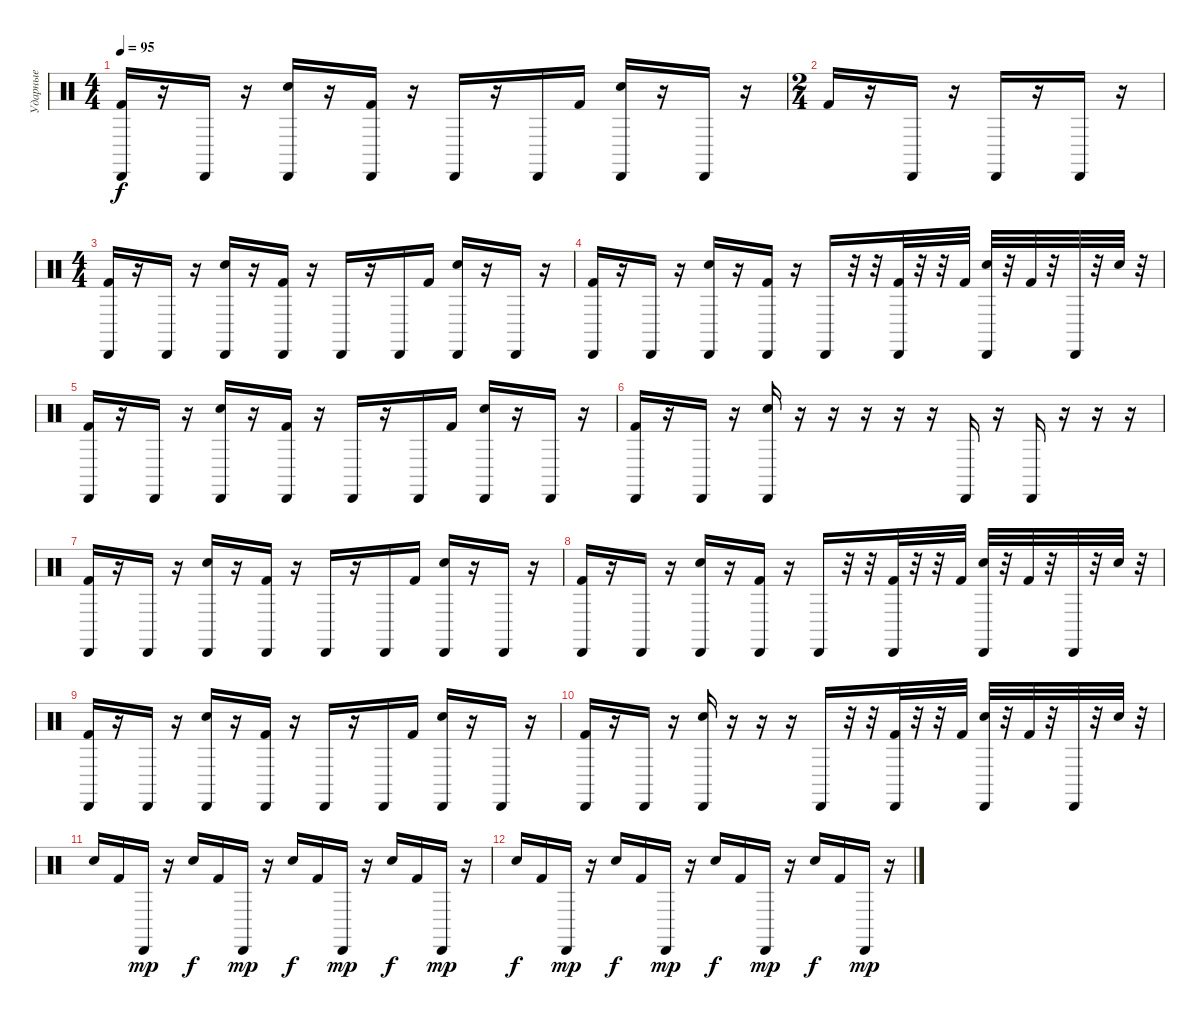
\track ("Ударные" "Ударные") {instrument percussion}
\staff {score}
\articulation defaults
\ts (4 4)
\tempo 95
\clef neutral
\ks c
("Cabasa (hit)" "Kick (hit) 2").16{dy f} r.16 "Cabasa (hit)".16 r.16 ("Cabasa (hit)" "Snare (hit) 2").16 r.16 ("Cabasa (hit)" "Kick (hit) 2").16 r.16 "Cabasa (hit)".16 r.16 "Cabasa (hit)".16 "Kick (hit) 2".16 ("Cabasa (hit)" "Snare (hit) 2").16 r.16 "Cabasa (hit)".16 r.16 |
\ts (2 4)
"Kick (hit) 2".16 r.16 "Cabasa (hit)".16 r.16 "Cabasa (hit)".16 r.16 "Cabasa (hit)".16 r.16 |
\ts (4 4)
("Cabasa (hit)" "Kick (hit) 2").16 r.16 "Cabasa (hit)".16 r.16 ("Cabasa (hit)" "Snare (hit) 2").16 r.16 ("Cabasa (hit)" "Kick (hit) 2").16 r.16 "Cabasa (hit)".16 r.16 "Cabasa (hit)".16 "Kick (hit) 2".16 ("Cabasa (hit)" "Snare (hit) 2").16 r.16 "Cabasa (hit)".16 r.16 |
("Cabasa (hit)" "Kick (hit) 2").16 r.16 "Cabasa (hit)".16 r.16 ("Cabasa (hit)" "Snare (hit) 2").16 r.16 ("Cabasa (hit)" "Kick (hit) 2").16 r.16 "Cabasa (hit)".16 r.32 r.32 ("Cabasa (hit)" "Kick (hit) 2").32 r.32 r.32 "Kick (hit) 2".32 ("Cabasa (hit)" "Snare (hit) 2").32 r.32 "Kick (hit) 2".32 r.32 "Cabasa (hit)".32 r.32 "Snare (hit) 2".32 r.32 |
("Cabasa (hit)" "Kick (hit) 2").16 r.16 "Cabasa (hit)".16 r.16 ("Cabasa (hit)" "Snare (hit) 2").16 r.16 ("Cabasa (hit)" "Kick (hit) 2").16 r.16 "Cabasa (hit)".16 r.16 "Cabasa (hit)".16 "Kick (hit) 2".16 ("Cabasa (hit)" "Snare (hit) 2").16 r.16 "Cabasa (hit)".16 r.16 |
("Cabasa (hit)" "Kick (hit) 2").16 r.16 "Cabasa (hit)".16 r.16 ("Cabasa (hit)" "Snare (hit) 2").16 r.16 r.16 r.16 r.16 r.16 "Cabasa (hit)".16 r.16 "Cabasa (hit)".16 r.16 r.16 r.16 |
("Cabasa (hit)" "Kick (hit) 2").16 r.16 "Cabasa (hit)".16 r.16 ("Cabasa (hit)" "Snare (hit) 2").16 r.16 ("Cabasa (hit)" "Kick (hit) 2").16 r.16 "Cabasa (hit)".16 r.16 "Cabasa (hit)".16 "Kick (hit) 2".16 ("Cabasa (hit)" "Snare (hit) 2").16 r.16 "Cabasa (hit)".16 r.16 |
("Cabasa (hit)" "Kick (hit) 2").16 r.16 "Cabasa (hit)".16 r.16 ("Cabasa (hit)" "Snare (hit) 2").16 r.16 ("Cabasa (hit)" "Kick (hit) 2").16 r.16 "Cabasa (hit)".16 r.32 r.32 ("Cabasa (hit)" "Kick (hit) 2").32 r.32 r.32 "Kick (hit) 2".32 ("Cabasa (hit)" "Snare (hit) 2").32 r.32 "Kick (hit) 2".32 r.32 "Cabasa (hit)".32 r.32 "Snare (hit) 2".32 r.32 |
("Cabasa (hit)" "Kick (hit) 2").16 r.16 "Cabasa (hit)".16 r.16 ("Cabasa (hit)" "Snare (hit) 2").16 r.16 ("Cabasa (hit)" "Kick (hit) 2").16 r.16 "Cabasa (hit)".16 r.16 "Cabasa (hit)".16 "Kick (hit) 2".16 ("Cabasa (hit)" "Snare (hit) 2").16 r.16 "Cabasa (hit)".16 r.16 |
("Cabasa (hit)" "Kick (hit) 2").16 r.16 "Cabasa (hit)".16 r.16 ("Cabasa (hit)" "Snare (hit) 2").16 r.16 r.16 r.16 "Cabasa (hit)".16 r.32 r.32 ("Cabasa (hit)" "Kick (hit) 2").32 r.32 r.32 "Kick (hit) 2".32 ("Cabasa (hit)" "Snare (hit) 2").32 r.32 "Kick (hit) 2".32 r.32 "Cabasa (hit)".32 r.32 "Snare (hit) 2".32 r.32 |
"Snare (hit) 2".16{volume 0} "Kick (hit) 2".16 "Cabasa (hit)".16{dy mp} r.16 "Snare (hit) 2".16{dy f} "Kick (hit) 2".16 "Cabasa (hit)".16{dy mp} r.16 "Snare (hit) 2".16{dy f} "Kick (hit) 2".16 "Cabasa (hit)".16{dy mp} r.16 "Snare (hit) 2".16{dy f} "Kick (hit) 2".16 "Cabasa (hit)".16{dy mp} r.16 |
"Snare (hit) 2".16{dy f} "Kick (hit) 2".16 "Cabasa (hit)".16{dy mp} r.16 "Snare (hit) 2".16{dy f} "Kick (hit) 2".16 "Cabasa (hit)".16{dy mp} r.16 "Snare (hit) 2".16{dy f} "Kick (hit) 2".16 "Cabasa (hit)".16{dy mp} r.16 "Snare (hit) 2".16{dy f} "Kick (hit) 2".16 "Cabasa (hit)".16{dy mp} r.16
